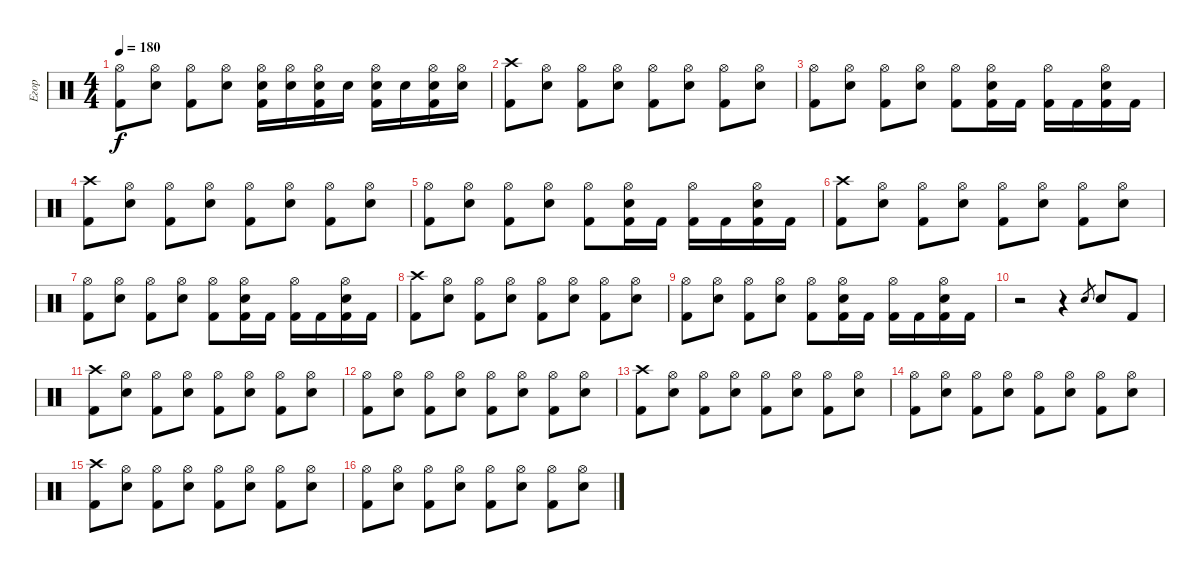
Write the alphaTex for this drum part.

\track ("Егор" "Егор") {instrument percussion}
\staff {score}
\articulation defaults
\ts (4 4)
\tempo 180
\clef neutral
\ks c
("Hi-Hat (open)" "Kick (hit) 2").8{dy f} ("Hi-Hat (open)" "Electric Snare (hit)").8 ("Hi-Hat (open)" "Kick (hit) 2").8 ("Hi-Hat (open)" "Electric Snare (hit)").8 ("Hi-Hat (open)" "Electric Snare (hit)" "Kick (hit) 2").16 ("Hi-Hat (open)" "Electric Snare (hit)").16 ("Hi-Hat (open)" "Electric Snare (hit)" "Kick (hit) 2").16 "Electric Snare (hit)".16 ("Hi-Hat (open)" "Electric Snare (hit)" "Kick (hit) 2").16 "Electric Snare (hit)".16 ("Hi-Hat (open)" "Electric Snare (hit)" "Kick (hit) 2").16 ("Hi-Hat (open)" "Electric Snare (hit)").16 |
("Crash high (hit)" "Kick (hit) 2").8 ("Hi-Hat (open)" "Electric Snare (hit)").8 ("Hi-Hat (open)" "Kick (hit) 2").8 ("Hi-Hat (open)" "Electric Snare (hit)").8 ("Hi-Hat (open)" "Kick (hit) 2").8 ("Hi-Hat (open)" "Electric Snare (hit)").8 ("Hi-Hat (open)" "Kick (hit) 2").8 ("Hi-Hat (open)" "Electric Snare (hit)").8 |
("Hi-Hat (open)" "Kick (hit) 2").8 ("Hi-Hat (open)" "Electric Snare (hit)").8 ("Hi-Hat (open)" "Kick (hit) 2").8 ("Hi-Hat (open)" "Electric Snare (hit)").8 ("Hi-Hat (open)" "Kick (hit) 2").8 ("Hi-Hat (open)" "Electric Snare (hit)" "Kick (hit) 2").16 "Kick (hit) 2".16 ("Hi-Hat (open)" "Kick (hit) 2").16 "Kick (hit) 2".16 ("Hi-Hat (open)" "Electric Snare (hit)" "Kick (hit) 2").16 "Kick (hit) 2".16 |
("Crash high (hit)" "Kick (hit) 2").8 ("Hi-Hat (open)" "Electric Snare (hit)").8 ("Hi-Hat (open)" "Kick (hit) 2").8 ("Hi-Hat (open)" "Electric Snare (hit)").8 ("Hi-Hat (open)" "Kick (hit) 2").8 ("Hi-Hat (open)" "Electric Snare (hit)").8 ("Hi-Hat (open)" "Kick (hit) 2").8 ("Hi-Hat (open)" "Electric Snare (hit)").8 |
("Hi-Hat (open)" "Kick (hit) 2").8 ("Hi-Hat (open)" "Electric Snare (hit)").8 ("Hi-Hat (open)" "Kick (hit) 2").8 ("Hi-Hat (open)" "Electric Snare (hit)").8 ("Hi-Hat (open)" "Kick (hit) 2").8 ("Hi-Hat (open)" "Electric Snare (hit)" "Kick (hit) 2").16 "Kick (hit) 2".16 ("Hi-Hat (open)" "Kick (hit) 2").16 "Kick (hit) 2".16 ("Hi-Hat (open)" "Electric Snare (hit)" "Kick (hit) 2").16 "Kick (hit) 2".16 |
("Crash high (hit)" "Kick (hit) 2").8 ("Hi-Hat (open)" "Electric Snare (hit)").8 ("Hi-Hat (open)" "Kick (hit) 2").8 ("Hi-Hat (open)" "Electric Snare (hit)").8 ("Hi-Hat (open)" "Kick (hit) 2").8 ("Hi-Hat (open)" "Electric Snare (hit)").8 ("Hi-Hat (open)" "Kick (hit) 2").8 ("Hi-Hat (open)" "Electric Snare (hit)").8 |
("Hi-Hat (open)" "Kick (hit) 2").8 ("Hi-Hat (open)" "Electric Snare (hit)").8 ("Hi-Hat (open)" "Kick (hit) 2").8 ("Hi-Hat (open)" "Electric Snare (hit)").8 ("Hi-Hat (open)" "Kick (hit) 2").8 ("Hi-Hat (open)" "Electric Snare (hit)" "Kick (hit) 2").16 "Kick (hit) 2".16 ("Hi-Hat (open)" "Kick (hit) 2").16 "Kick (hit) 2".16 ("Hi-Hat (open)" "Electric Snare (hit)" "Kick (hit) 2").16 "Kick (hit) 2".16 |
("Crash high (hit)" "Kick (hit) 2").8 ("Hi-Hat (open)" "Electric Snare (hit)").8 ("Hi-Hat (open)" "Kick (hit) 2").8 ("Hi-Hat (open)" "Electric Snare (hit)").8 ("Hi-Hat (open)" "Kick (hit) 2").8 ("Hi-Hat (open)" "Electric Snare (hit)").8 ("Hi-Hat (open)" "Kick (hit) 2").8 ("Hi-Hat (open)" "Electric Snare (hit)").8 |
("Hi-Hat (open)" "Kick (hit) 2").8 ("Hi-Hat (open)" "Electric Snare (hit)").8 ("Hi-Hat (open)" "Kick (hit) 2").8 ("Hi-Hat (open)" "Electric Snare (hit)").8 ("Hi-Hat (open)" "Kick (hit) 2").8 ("Hi-Hat (open)" "Electric Snare (hit)" "Kick (hit) 2").16 "Kick (hit) 2".16 ("Hi-Hat (open)" "Kick (hit) 2").16 "Kick (hit) 2".16 ("Hi-Hat (open)" "Electric Snare (hit)" "Kick (hit) 2").16 "Kick (hit) 2".16 |
r.2 r.4 "Electric Snare (hit)".8{gr} "Electric Snare (hit)".8 "Kick (hit) 2".8 |
("Crash high (hit)" "Kick (hit) 2").8 ("Hi-Hat (open)" "Electric Snare (hit)").8 ("Hi-Hat (open)" "Kick (hit) 2").8 ("Hi-Hat (open)" "Electric Snare (hit)").8 ("Hi-Hat (open)" "Kick (hit) 2").8 ("Hi-Hat (open)" "Electric Snare (hit)").8 ("Hi-Hat (open)" "Kick (hit) 2").8 ("Hi-Hat (open)" "Electric Snare (hit)").8 |
("Hi-Hat (open)" "Kick (hit) 2").8 ("Hi-Hat (open)" "Electric Snare (hit)").8 ("Hi-Hat (open)" "Kick (hit) 2").8 ("Hi-Hat (open)" "Electric Snare (hit)").8 ("Hi-Hat (open)" "Kick (hit) 2").8 ("Hi-Hat (open)" "Electric Snare (hit)").8 ("Hi-Hat (open)" "Kick (hit) 2").8 ("Hi-Hat (open)" "Electric Snare (hit)").8 |
("Crash high (hit)" "Kick (hit) 2").8 ("Hi-Hat (open)" "Electric Snare (hit)").8 ("Hi-Hat (open)" "Kick (hit) 2").8 ("Hi-Hat (open)" "Electric Snare (hit)").8 ("Hi-Hat (open)" "Kick (hit) 2").8 ("Hi-Hat (open)" "Electric Snare (hit)").8 ("Hi-Hat (open)" "Kick (hit) 2").8 ("Hi-Hat (open)" "Electric Snare (hit)").8 |
("Hi-Hat (open)" "Kick (hit) 2").8 ("Hi-Hat (open)" "Electric Snare (hit)").8 ("Hi-Hat (open)" "Kick (hit) 2").8 ("Hi-Hat (open)" "Electric Snare (hit)").8 ("Hi-Hat (open)" "Kick (hit) 2").8 ("Hi-Hat (open)" "Electric Snare (hit)").8 ("Hi-Hat (open)" "Kick (hit) 2").8 ("Hi-Hat (open)" "Electric Snare (hit)").8 |
("Crash high (hit)" "Kick (hit) 2").8 ("Hi-Hat (open)" "Electric Snare (hit)").8 ("Hi-Hat (open)" "Kick (hit) 2").8 ("Hi-Hat (open)" "Electric Snare (hit)").8 ("Hi-Hat (open)" "Kick (hit) 2").8 ("Hi-Hat (open)" "Electric Snare (hit)").8 ("Hi-Hat (open)" "Kick (hit) 2").8 ("Hi-Hat (open)" "Electric Snare (hit)").8 |
("Hi-Hat (open)" "Kick (hit) 2").8 ("Hi-Hat (open)" "Electric Snare (hit)").8 ("Hi-Hat (open)" "Kick (hit) 2").8 ("Hi-Hat (open)" "Electric Snare (hit)").8 ("Hi-Hat (open)" "Kick (hit) 2").8 ("Hi-Hat (open)" "Electric Snare (hit)").8 ("Hi-Hat (open)" "Kick (hit) 2").8 ("Hi-Hat (open)" "Electric Snare (hit)").8
